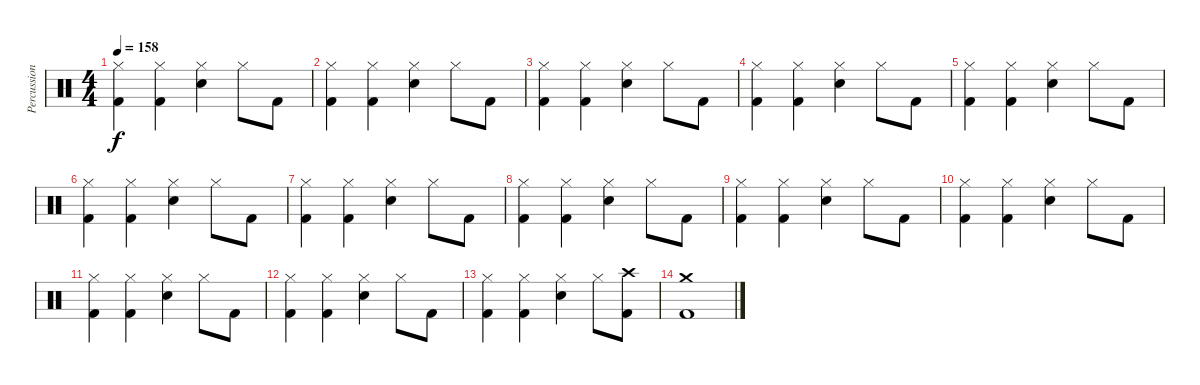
\track ("Percussions" "Percussion") {instrument percussion}
\staff {score}
\articulation defaults
\ts (4 4)
\tempo 158
\clef neutral
\ks c
("Hi-Hat (closed)" "Kick (hit) 2").4{dy f} ("Hi-Hat (closed)" "Kick (hit) 2").4 ("Hi-Hat (closed)" "Snare (hit) 2").4 "Hi-Hat (closed)".8 "Kick (hit) 2".8 |
("Hi-Hat (closed)" "Kick (hit) 2").4 ("Hi-Hat (closed)" "Kick (hit) 2").4 ("Hi-Hat (closed)" "Snare (hit) 2").4 "Hi-Hat (closed)".8 "Kick (hit) 2".8 |
("Hi-Hat (closed)" "Kick (hit) 2").4 ("Hi-Hat (closed)" "Kick (hit) 2").4 ("Hi-Hat (closed)" "Snare (hit) 2").4 "Hi-Hat (closed)".8 "Kick (hit) 2".8 |
("Hi-Hat (closed)" "Kick (hit) 2").4 ("Hi-Hat (closed)" "Kick (hit) 2").4 ("Hi-Hat (closed)" "Snare (hit) 2").4 "Hi-Hat (closed)".8 "Kick (hit) 2".8 |
("Hi-Hat (closed)" "Kick (hit) 2").4 ("Hi-Hat (closed)" "Kick (hit) 2").4 ("Hi-Hat (closed)" "Snare (hit) 2").4 "Hi-Hat (closed)".8 "Kick (hit) 2".8 |
("Hi-Hat (closed)" "Kick (hit) 2").4 ("Hi-Hat (closed)" "Kick (hit) 2").4 ("Hi-Hat (closed)" "Snare (hit) 2").4 "Hi-Hat (closed)".8 "Kick (hit) 2".8 |
("Hi-Hat (closed)" "Kick (hit) 2").4 ("Hi-Hat (closed)" "Kick (hit) 2").4 ("Hi-Hat (closed)" "Snare (hit) 2").4 "Hi-Hat (closed)".8 "Kick (hit) 2".8 |
("Hi-Hat (closed)" "Kick (hit) 2").4 ("Hi-Hat (closed)" "Kick (hit) 2").4 ("Hi-Hat (closed)" "Snare (hit) 2").4 "Hi-Hat (closed)".8 "Kick (hit) 2".8 |
("Hi-Hat (closed)" "Kick (hit) 2").4 ("Hi-Hat (closed)" "Kick (hit) 2").4 ("Hi-Hat (closed)" "Snare (hit) 2").4 "Hi-Hat (closed)".8 "Kick (hit) 2".8 |
("Hi-Hat (closed)" "Kick (hit) 2").4 ("Hi-Hat (closed)" "Kick (hit) 2").4 ("Hi-Hat (closed)" "Snare (hit) 2").4 "Hi-Hat (closed)".8 "Kick (hit) 2".8 |
("Hi-Hat (closed)" "Kick (hit) 2").4 ("Hi-Hat (closed)" "Kick (hit) 2").4 ("Hi-Hat (closed)" "Snare (hit) 2").4 "Hi-Hat (closed)".8 "Kick (hit) 2".8 |
("Hi-Hat (closed)" "Kick (hit) 2").4 ("Hi-Hat (closed)" "Kick (hit) 2").4 ("Hi-Hat (closed)" "Snare (hit) 2").4 "Hi-Hat (closed)".8 "Kick (hit) 2".8 |
("Hi-Hat (closed)" "Kick (hit) 2").4 ("Hi-Hat (closed)" "Kick (hit) 2").4 ("Hi-Hat (closed)" "Snare (hit) 2").4 "Hi-Hat (closed)".8 ("Crash high (hit)" "Kick (hit) 2").8 |
("Crash medium (hit)" "Kick (hit) 2").1
